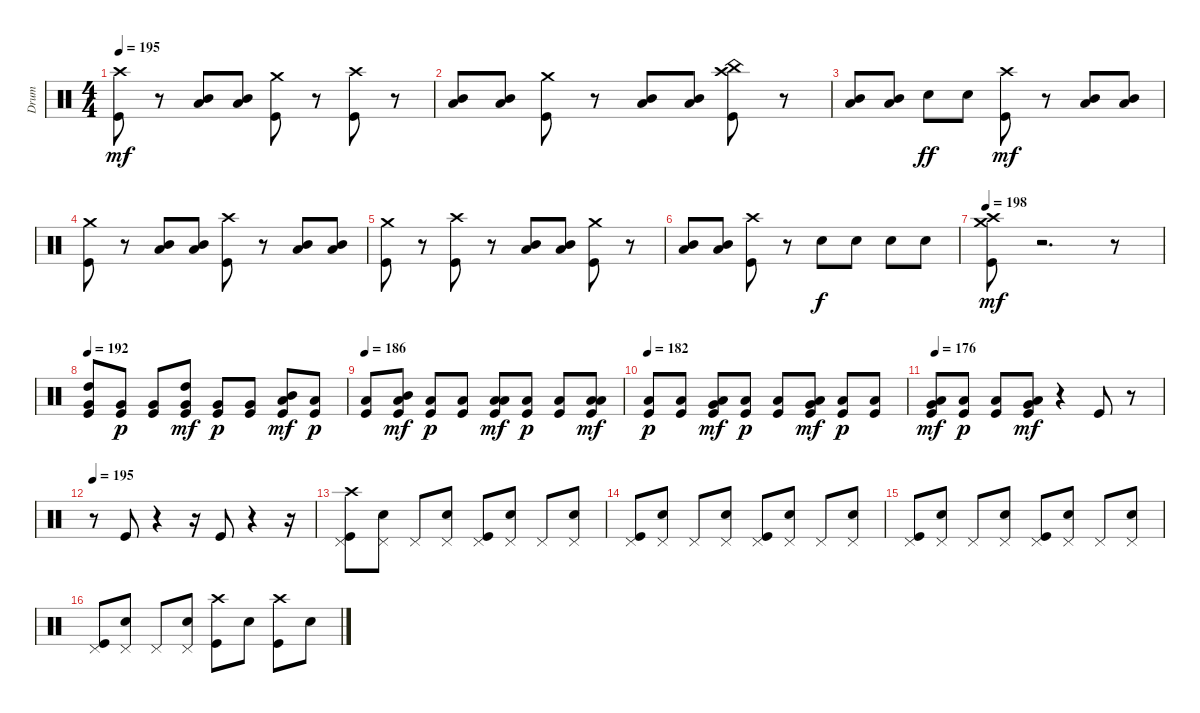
\track ("Drum" "Drum") {instrument percussion}
\staff {score}
\articulation defaults
\ts (4 4)
\tempo 195
\clef neutral
\ks c
("Crash high (hit)" "Kick (hit)").8{dy mf} r.8 ("Low Tom (hit)" "Mid Tom (hit)").8 ("Low Tom (hit)" "Mid Tom (hit)").8 ("Crash medium (hit)" "Kick (hit)").8 r.8 ("Crash high (hit)" "Kick (hit)").8 r.8 |
("Low Tom (hit)" "Mid Tom (hit)").8 ("Low Tom (hit)" "Mid Tom (hit)").8 ("Crash medium (hit)" "Kick (hit)").8 r.8 ("Low Tom (hit)" "Mid Tom (hit)").8 ("Low Tom (hit)" "Mid Tom (hit)").8 ("Crash high (hit)" "China (hit)" "Kick (hit)").8 r.8 |
("Low Tom (hit)" "Mid Tom (hit)").8 ("Low Tom (hit)" "Mid Tom (hit)").8 "Snare (hit) 2".8{dy ff} "Snare (hit) 2".8 ("Crash high (hit)" "Kick (hit)").8{dy mf} r.8 ("Low Tom (hit)" "Mid Tom (hit)").8 ("Low Tom (hit)" "Mid Tom (hit)").8 |
("Crash medium (hit)" "Kick (hit)").8 r.8 ("Low Tom (hit)" "Mid Tom (hit)").8 ("Low Tom (hit)" "Mid Tom (hit)").8 ("Crash high (hit)" "Kick (hit)").8 r.8 ("Low Tom (hit)" "Mid Tom (hit)").8 ("Low Tom (hit)" "Mid Tom (hit)").8 |
("Crash medium (hit)" "Kick (hit)").8 r.8 ("Crash high (hit)" "Kick (hit)").8 r.8 ("Low Tom (hit)" "Mid Tom (hit)").8 ("Low Tom (hit)" "Mid Tom (hit)").8 ("Crash medium (hit)" "Kick (hit)").8 r.8 |
("Low Tom (hit)" "Mid Tom (hit)").8 ("Low Tom (hit)" "Mid Tom (hit)").8 ("Crash high (hit)" "Kick (hit)").8 r.8 "Snare (hit) 2".8{dy f} "Snare (hit) 2".8 "Snare (hit) 2".8 "Snare (hit) 2".8 |
\tempo 198
("Crash medium (hit)" "Crash high (hit)" "Kick (hit)").8{dy mf} r.2{d} r.8 |
\tempo 192
("Kick (hit)" "Very Low Tom (hit)" "High Tom (hit)").8 ("Very Low Tom (hit)" "Kick (hit)").8{dy p} ("Very Low Tom (hit)" "Kick (hit)").8 ("Kick (hit)" "Very Low Tom (hit)" "High Tom (hit)").8{dy mf} ("Very Low Tom (hit)" "Kick (hit)").8{dy p} ("Very Low Tom (hit)" "Kick (hit)").8 ("Low Floor Tom (hit)" "Mid Tom (hit)" "Kick (hit)").8{dy mf} ("Low Floor Tom (hit)" "Kick (hit)").8{dy p} |
\tempo 186
("Low Floor Tom (hit)" "Kick (hit)").8 ("Low Floor Tom (hit)" "Mid Tom (hit)" "Kick (hit)").8{dy mf} ("Low Floor Tom (hit)" "Kick (hit)").8{dy p} ("Low Floor Tom (hit)" "Kick (hit)").8 ("Low Floor Tom (hit)" "Low Tom (hit)" "Kick (hit)").8{dy mf} ("Low Floor Tom (hit)" "Kick (hit)").8{dy p} ("Low Floor Tom (hit)" "Kick (hit)").8 ("Low Floor Tom (hit)" "Low Tom (hit)" "Kick (hit)").8{dy mf} |
\tempo 182
("Low Floor Tom (hit)" "Kick (hit)").8{dy p} ("Low Floor Tom (hit)" "Kick (hit)").8 ("Kick (hit)" "Low Floor Tom (hit)" "Very Low Tom (hit)").8{dy mf} ("Low Floor Tom (hit)" "Kick (hit)").8{dy p} ("Low Floor Tom (hit)" "Kick (hit)").8 ("Kick (hit)" "Low Floor Tom (hit)" "Very Low Tom (hit)").8{dy mf} ("Low Floor Tom (hit)" "Kick (hit)").8{dy p} ("Low Floor Tom (hit)" "Kick (hit)").8 |
\tempo 176
("Very Low Tom (hit)" "Kick (hit)" "Low Floor Tom (hit)").8{dy mf} ("Low Floor Tom (hit)" "Kick (hit)").8{dy p} ("Low Floor Tom (hit)" "Kick (hit)").8 ("Very Low Tom (hit)" "Kick (hit)" "Low Floor Tom (hit)").8{dy mf} r.4 "Kick (hit)".8 r.8 |
\tempo 195
r.8 "Kick (hit)".8 r.4 r.16 "Kick (hit)".8 r.4 r.16 |
("Pedal Hi-Hat (hit)" "Kick (hit)" "Crash high (hit)").8 ("Pedal Hi-Hat (hit)" "Snare (hit) 2").8 "Pedal Hi-Hat (hit)".8 ("Pedal Hi-Hat (hit)" "Snare (hit) 2").8 ("Pedal Hi-Hat (hit)" "Kick (hit)").8 ("Pedal Hi-Hat (hit)" "Snare (hit) 2").8 "Pedal Hi-Hat (hit)".8 ("Pedal Hi-Hat (hit)" "Snare (hit) 2").8 |
("Pedal Hi-Hat (hit)" "Kick (hit)").8 ("Pedal Hi-Hat (hit)" "Snare (hit) 2").8 "Pedal Hi-Hat (hit)".8 ("Pedal Hi-Hat (hit)" "Snare (hit) 2").8 ("Pedal Hi-Hat (hit)" "Kick (hit)").8 ("Pedal Hi-Hat (hit)" "Snare (hit) 2").8 "Pedal Hi-Hat (hit)".8 ("Pedal Hi-Hat (hit)" "Snare (hit) 2").8 |
("Pedal Hi-Hat (hit)" "Kick (hit)").8 ("Pedal Hi-Hat (hit)" "Snare (hit) 2").8 "Pedal Hi-Hat (hit)".8 ("Pedal Hi-Hat (hit)" "Snare (hit) 2").8 ("Pedal Hi-Hat (hit)" "Kick (hit)").8 ("Pedal Hi-Hat (hit)" "Snare (hit) 2").8 "Pedal Hi-Hat (hit)".8 ("Pedal Hi-Hat (hit)" "Snare (hit) 2").8 |
("Pedal Hi-Hat (hit)" "Kick (hit)").8 ("Pedal Hi-Hat (hit)" "Snare (hit) 2").8 "Pedal Hi-Hat (hit)".8 ("Pedal Hi-Hat (hit)" "Snare (hit) 2").8 ("Crash high (hit)" "Kick (hit)").8 "Snare (hit) 2".8 ("Crash high (hit)" "Kick (hit)").8 "Snare (hit) 2".8
